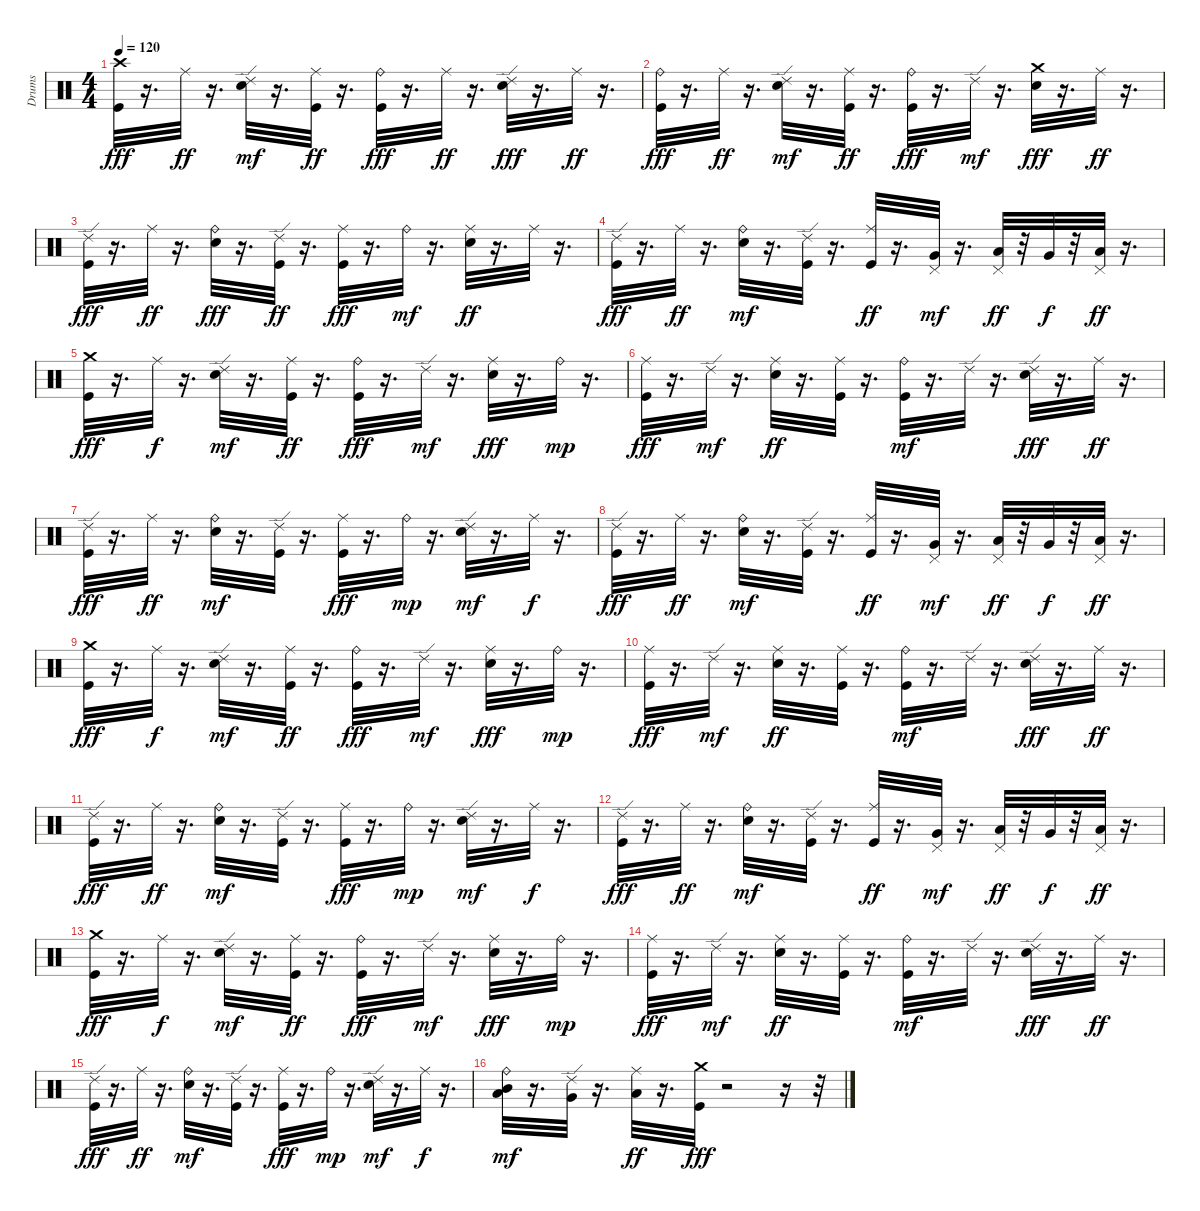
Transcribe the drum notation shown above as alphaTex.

\track ("Drums" "Drums") {instrument percussion}
\staff {score}
\articulation defaults
\ts (4 4)
\tempo 120
\clef neutral
\ks c
("Crash high (hit)" "Kick (hit)").32{dy fff} r.16{d} "Ride (middle)".32{dy ff} r.16{d} ("Electric Snare (hit)" "Ride (edge) 2").32{dy mf} r.16{d} ("Kick (hit)" "Ride (middle)").32{dy ff} r.16{d} ("Ride (bell)" "Kick (hit)").32{dy fff} r.16{d} "Ride (middle)".32{dy ff} r.16{d} ("Ride (edge) 2" "Electric Snare (hit)").32{dy fff} r.16{d} "Ride (middle)".32{dy ff} r.16{d} |
("Ride (bell)" "Kick (hit)").32{dy fff} r.16{d} "Ride (middle)".32{dy ff} r.16{d} ("Electric Snare (hit)" "Ride (edge) 2").32{dy mf} r.16{d} ("Kick (hit)" "Ride (middle)").32{dy ff} r.16{d} ("Ride (bell)" "Kick (hit)").32{dy fff} r.16{d} "Ride (edge) 2".32{dy mf} r.16{d} ("Crash medium (hit)" "Electric Snare (hit)").32{dy fff} r.16{d} "Ride (middle)".32{dy ff} r.16{d} |
("Ride (edge) 2" "Kick (hit)").32{dy fff} r.16{d} "Ride (middle)".32{dy ff} r.16{d} ("Ride (bell)" "Electric Snare (hit)").32{dy fff} r.16{d} ("Ride (edge) 2" "Kick (hit)").32{dy ff} r.16{d} ("Ride (middle)" "Kick (hit)").32{dy fff} r.16{d} "Ride (bell)".32{dy mf} r.16{d} ("Electric Snare (hit)" "Ride (middle)").32{dy ff} r.16{d} "Ride (middle)".32 r.16{d} |
("Kick (hit)" "Ride (edge) 2").32{dy fff} r.16{d} "Ride (middle)".32{dy ff} r.16{d} ("Electric Snare (hit)" "Ride (bell)").32{dy mf} r.16{d} ("Kick (hit)" "Ride (edge) 2").32 r.16{d} ("Kick (hit)" "Ride (middle)").32{dy ff} r.16{d} ("Very Low Tom (hit)" "Pedal Hi-Hat (hit)").32{dy mf} r.16{d} ("Pedal Hi-Hat (hit)" "Low Tom (hit)").32{dy ff} r.32 "Very Low Tom (hit)".32{dy f} r.32 ("Pedal Hi-Hat (hit)" "Low Floor Tom (hit)").32{dy ff} r.16{d} |
("Crash medium (hit)" "Kick (hit)").32{dy fff} r.16{d} "Ride (middle)".32{dy f} r.16{d} ("Electric Snare (hit)" "Ride (edge) 2").32{dy mf} r.16{d} ("Ride (middle)" "Kick (hit)").32{dy ff} r.16{d} ("Ride (bell)" "Kick (hit)").32{dy fff} r.16{d} "Ride (edge) 2".32{dy mf} r.16{d} ("Ride (middle)" "Electric Snare (hit)").32{dy fff} r.16{d} "Ride (bell)".32{dy mp} r.16{d} |
("Ride (middle)" "Kick (hit)").32{dy fff} r.16{d} "Ride (edge) 2".32{dy mf} r.16{d} ("Electric Snare (hit)" "Ride (middle)").32{dy ff} r.16{d} ("Kick (hit)" "Ride (middle)").32 r.16{d} ("Kick (hit)" "Ride (bell)").32{dy mf} r.16{d} "Ride (edge) 2".32 r.16{d} ("Ride (edge) 2" "Electric Snare (hit)").32{dy fff} r.16{d} "Ride (middle)".32{dy ff} r.16{d} |
("Ride (edge) 2" "Kick (hit)").32{dy fff} r.16{d} "Ride (middle)".32{dy ff} r.16{d} ("Electric Snare (hit)" "Ride (bell)").32{dy mf} r.16{d} ("Kick (hit)" "Ride (edge) 2").32 r.16{d} ("Kick (hit)" "Ride (middle)").32{dy fff} r.16{d} "Ride (bell)".32{dy mp} r.16{d} ("Electric Snare (hit)" "Ride (edge) 2").32{dy mf} r.16{d} "Ride (middle)".32{dy f} r.16{d} |
("Kick (hit)" "Ride (edge) 2").32{dy fff} r.16{d} "Ride (middle)".32{dy ff} r.16{d} ("Electric Snare (hit)" "Ride (bell)").32{dy mf} r.16{d} ("Kick (hit)" "Ride (edge) 2").32 r.16{d} ("Kick (hit)" "Ride (middle)").32{dy ff} r.16{d} ("Very Low Tom (hit)" "Pedal Hi-Hat (hit)").32{dy mf} r.16{d} ("Pedal Hi-Hat (hit)" "Low Tom (hit)").32{dy ff} r.32 "Very Low Tom (hit)".32{dy f} r.32 ("Pedal Hi-Hat (hit)" "Low Floor Tom (hit)").32{dy ff} r.16{d} |
("Crash medium (hit)" "Kick (hit)").32{dy fff} r.16{d} "Ride (middle)".32{dy f} r.16{d} ("Electric Snare (hit)" "Ride (edge) 2").32{dy mf} r.16{d} ("Ride (middle)" "Kick (hit)").32{dy ff} r.16{d} ("Ride (bell)" "Kick (hit)").32{dy fff} r.16{d} "Ride (edge) 2".32{dy mf} r.16{d} ("Ride (middle)" "Electric Snare (hit)").32{dy fff} r.16{d} "Ride (bell)".32{dy mp} r.16{d} |
("Ride (middle)" "Kick (hit)").32{dy fff} r.16{d} "Ride (edge) 2".32{dy mf} r.16{d} ("Electric Snare (hit)" "Ride (middle)").32{dy ff} r.16{d} ("Kick (hit)" "Ride (middle)").32 r.16{d} ("Kick (hit)" "Ride (bell)").32{dy mf} r.16{d} "Ride (edge) 2".32 r.16{d} ("Ride (edge) 2" "Electric Snare (hit)").32{dy fff} r.16{d} "Ride (middle)".32{dy ff} r.16{d} |
("Ride (edge) 2" "Kick (hit)").32{dy fff} r.16{d} "Ride (middle)".32{dy ff} r.16{d} ("Electric Snare (hit)" "Ride (bell)").32{dy mf} r.16{d} ("Kick (hit)" "Ride (edge) 2").32 r.16{d} ("Kick (hit)" "Ride (middle)").32{dy fff} r.16{d} "Ride (bell)".32{dy mp} r.16{d} ("Electric Snare (hit)" "Ride (edge) 2").32{dy mf} r.16{d} "Ride (middle)".32{dy f} r.16{d} |
("Kick (hit)" "Ride (edge) 2").32{dy fff} r.16{d} "Ride (middle)".32{dy ff} r.16{d} ("Electric Snare (hit)" "Ride (bell)").32{dy mf} r.16{d} ("Kick (hit)" "Ride (edge) 2").32 r.16{d} ("Kick (hit)" "Ride (middle)").32{dy ff} r.16{d} ("Very Low Tom (hit)" "Pedal Hi-Hat (hit)").32{dy mf} r.16{d} ("Pedal Hi-Hat (hit)" "Low Tom (hit)").32{dy ff} r.32 "Very Low Tom (hit)".32{dy f} r.32 ("Pedal Hi-Hat (hit)" "Low Floor Tom (hit)").32{dy ff} r.16{d} |
("Crash medium (hit)" "Kick (hit)").32{dy fff} r.16{d} "Ride (middle)".32{dy f} r.16{d} ("Electric Snare (hit)" "Ride (edge) 2").32{dy mf} r.16{d} ("Ride (middle)" "Kick (hit)").32{dy ff} r.16{d} ("Ride (bell)" "Kick (hit)").32{dy fff} r.16{d} "Ride (edge) 2".32{dy mf} r.16{d} ("Ride (middle)" "Electric Snare (hit)").32{dy fff} r.16{d} "Ride (bell)".32{dy mp} r.16{d} |
("Ride (middle)" "Kick (hit)").32{dy fff} r.16{d} "Ride (edge) 2".32{dy mf} r.16{d} ("Electric Snare (hit)" "Ride (middle)").32{dy ff} r.16{d} ("Kick (hit)" "Ride (middle)").32 r.16{d} ("Kick (hit)" "Ride (bell)").32{dy mf} r.16{d} "Ride (edge) 2".32 r.16{d} ("Ride (edge) 2" "Electric Snare (hit)").32{dy fff} r.16{d} "Ride (middle)".32{dy ff} r.16{d} |
("Ride (edge) 2" "Kick (hit)").32{dy fff} r.16{d} "Ride (middle)".32{dy ff} r.16{d} ("Electric Snare (hit)" "Ride (bell)").32{dy mf} r.16{d} ("Kick (hit)" "Ride (edge) 2").32 r.16{d} ("Kick (hit)" "Ride (middle)").32{dy fff} r.16{d} "Ride (bell)".32{dy mp} r.16{d} ("Electric Snare (hit)" "Ride (edge) 2").32{dy mf} r.16{d} "Ride (middle)".32{dy f} r.16{d} |
("Mid Tom (hit)" "Low Tom (hit)" "Ride (bell)").32{dy mf} r.16{d} ("Very Low Tom (hit)" "Ride (edge) 2").32 r.16{d} ("Ride (middle)" "Low Floor Tom (hit)").32{dy ff} r.16{d} ("Crash medium (hit)" "Kick (hit)").32{dy fff} r.2 r.16 r.32
